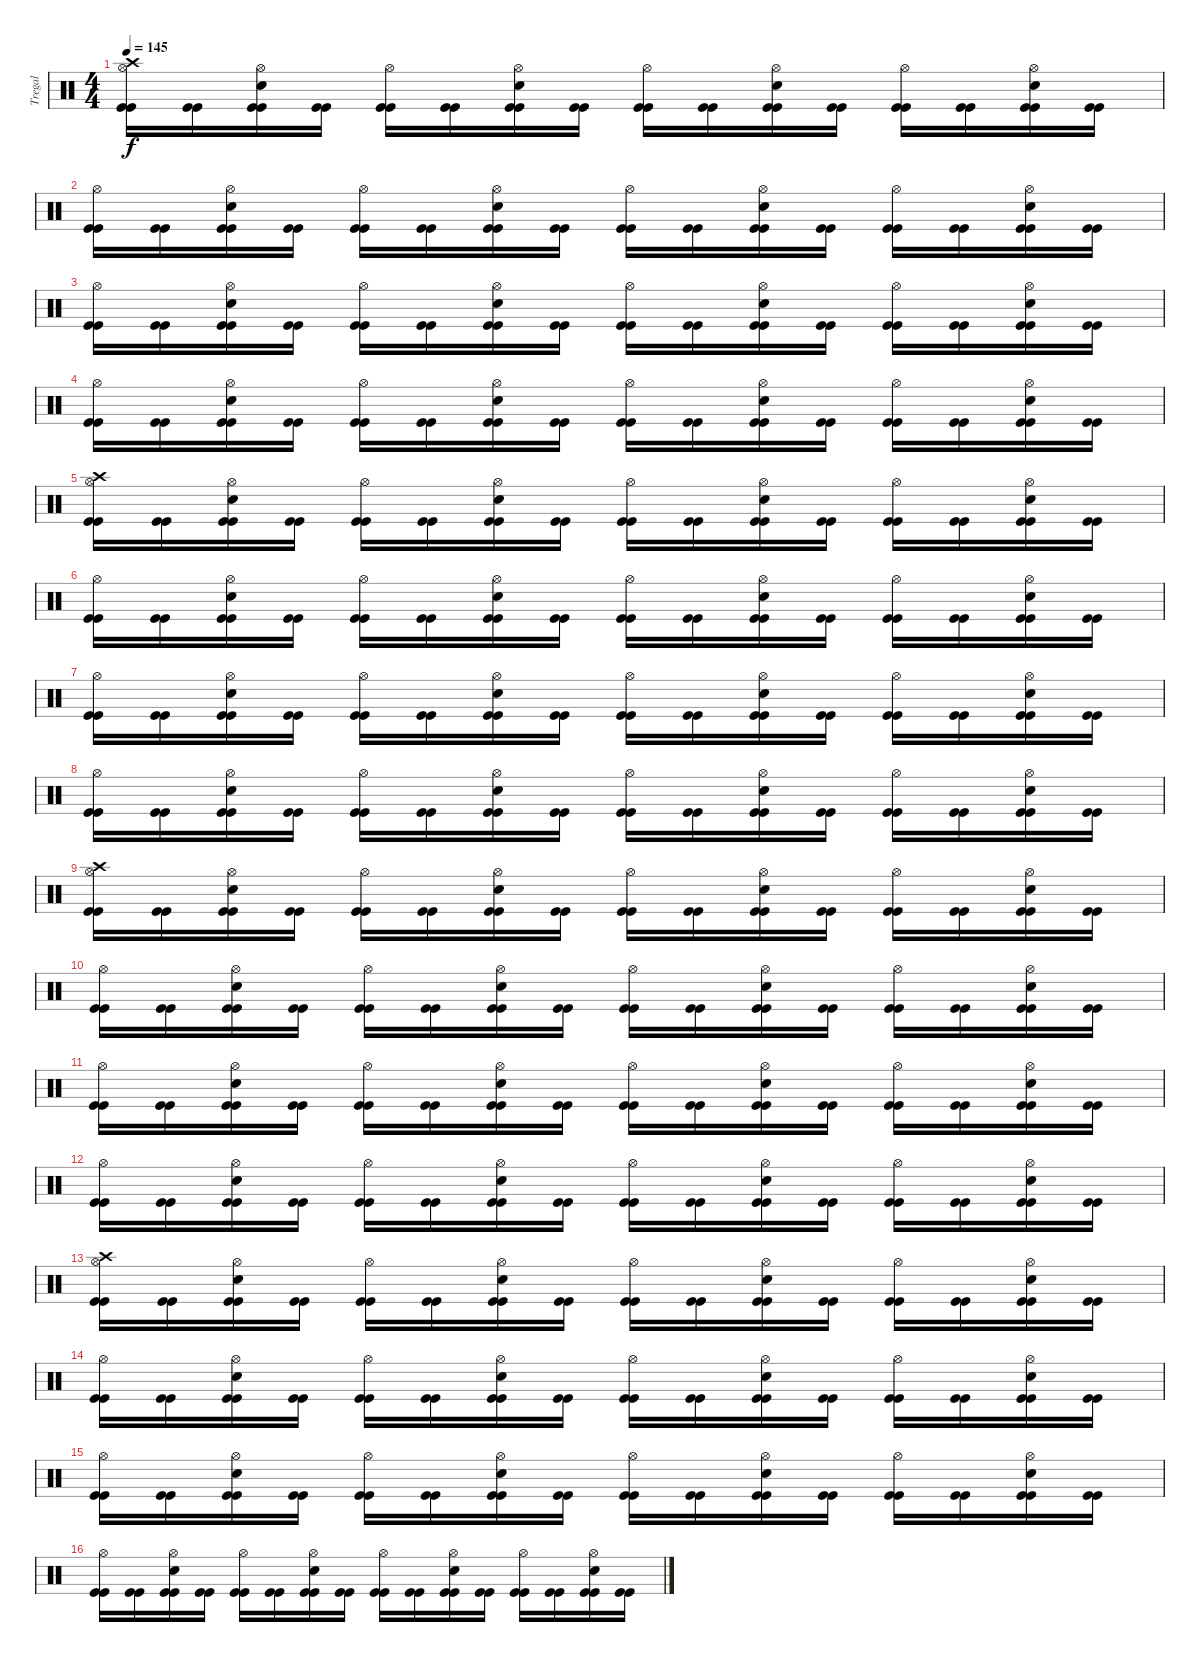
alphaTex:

\track ("Tregal" "Tregal") {instrument percussion}
\staff {score}
\articulation defaults
\ts (4 4)
\tempo 145
\clef neutral
\ks c
("Kick (hit)" "Kick (hit)" "Hi-Hat (open)" "Crash high (hit)").16{dy f} ("Kick (hit)" "Kick (hit)").16 ("Kick (hit)" "Kick (hit)" "Hi-Hat (open)" "Snare (hit) 2").16 ("Kick (hit)" "Kick (hit)").16 ("Kick (hit)" "Kick (hit)" "Hi-Hat (open)").16 ("Kick (hit)" "Kick (hit)").16 ("Kick (hit)" "Kick (hit)" "Hi-Hat (open)" "Snare (hit) 2").16 ("Kick (hit)" "Kick (hit)").16 ("Kick (hit)" "Kick (hit)" "Hi-Hat (open)").16 ("Kick (hit)" "Kick (hit)").16 ("Kick (hit)" "Kick (hit)" "Hi-Hat (open)" "Snare (hit) 2").16 ("Kick (hit)" "Kick (hit)").16 ("Kick (hit)" "Kick (hit)" "Hi-Hat (open)").16 ("Kick (hit)" "Kick (hit)").16 ("Kick (hit)" "Kick (hit)" "Hi-Hat (open)" "Snare (hit) 2").16 ("Kick (hit)" "Kick (hit)").16 |
("Kick (hit)" "Kick (hit)" "Hi-Hat (open)").16 ("Kick (hit)" "Kick (hit)").16 ("Kick (hit)" "Kick (hit)" "Hi-Hat (open)" "Snare (hit) 2").16 ("Kick (hit)" "Kick (hit)").16 ("Kick (hit)" "Kick (hit)" "Hi-Hat (open)").16 ("Kick (hit)" "Kick (hit)").16 ("Kick (hit)" "Kick (hit)" "Hi-Hat (open)" "Snare (hit) 2").16 ("Kick (hit)" "Kick (hit)").16 ("Kick (hit)" "Kick (hit)" "Hi-Hat (open)").16 ("Kick (hit)" "Kick (hit)").16 ("Kick (hit)" "Kick (hit)" "Hi-Hat (open)" "Snare (hit) 2").16 ("Kick (hit)" "Kick (hit)").16 ("Kick (hit)" "Kick (hit)" "Hi-Hat (open)").16 ("Kick (hit)" "Kick (hit)").16 ("Kick (hit)" "Kick (hit)" "Hi-Hat (open)" "Snare (hit) 2").16 ("Kick (hit)" "Kick (hit)").16 |
("Kick (hit)" "Kick (hit)" "Hi-Hat (open)").16 ("Kick (hit)" "Kick (hit)").16 ("Kick (hit)" "Kick (hit)" "Hi-Hat (open)" "Snare (hit) 2").16 ("Kick (hit)" "Kick (hit)").16 ("Kick (hit)" "Kick (hit)" "Hi-Hat (open)").16 ("Kick (hit)" "Kick (hit)").16 ("Kick (hit)" "Kick (hit)" "Hi-Hat (open)" "Snare (hit) 2").16 ("Kick (hit)" "Kick (hit)").16 ("Kick (hit)" "Kick (hit)" "Hi-Hat (open)").16 ("Kick (hit)" "Kick (hit)").16 ("Kick (hit)" "Kick (hit)" "Hi-Hat (open)" "Snare (hit) 2").16 ("Kick (hit)" "Kick (hit)").16 ("Kick (hit)" "Kick (hit)" "Hi-Hat (open)").16 ("Kick (hit)" "Kick (hit)").16 ("Kick (hit)" "Kick (hit)" "Hi-Hat (open)" "Snare (hit) 2").16 ("Kick (hit)" "Kick (hit)").16 |
("Kick (hit)" "Kick (hit)" "Hi-Hat (open)").16 ("Kick (hit)" "Kick (hit)").16 ("Kick (hit)" "Kick (hit)" "Hi-Hat (open)" "Snare (hit) 2").16 ("Kick (hit)" "Kick (hit)").16 ("Kick (hit)" "Kick (hit)" "Hi-Hat (open)").16 ("Kick (hit)" "Kick (hit)").16 ("Kick (hit)" "Kick (hit)" "Hi-Hat (open)" "Snare (hit) 2").16 ("Kick (hit)" "Kick (hit)").16 ("Kick (hit)" "Kick (hit)" "Hi-Hat (open)").16 ("Kick (hit)" "Kick (hit)").16 ("Kick (hit)" "Kick (hit)" "Hi-Hat (open)" "Snare (hit) 2").16 ("Kick (hit)" "Kick (hit)").16 ("Kick (hit)" "Kick (hit)" "Hi-Hat (open)").16 ("Kick (hit)" "Kick (hit)").16 ("Kick (hit)" "Kick (hit)" "Hi-Hat (open)" "Snare (hit) 2").16 ("Kick (hit)" "Kick (hit)").16 |
("Kick (hit)" "Kick (hit)" "Hi-Hat (open)" "Crash high (hit)").16 ("Kick (hit)" "Kick (hit)").16 ("Kick (hit)" "Kick (hit)" "Hi-Hat (open)" "Snare (hit) 2").16 ("Kick (hit)" "Kick (hit)").16 ("Kick (hit)" "Kick (hit)" "Hi-Hat (open)").16 ("Kick (hit)" "Kick (hit)").16 ("Kick (hit)" "Kick (hit)" "Hi-Hat (open)" "Snare (hit) 2").16 ("Kick (hit)" "Kick (hit)").16 ("Kick (hit)" "Kick (hit)" "Hi-Hat (open)").16 ("Kick (hit)" "Kick (hit)").16 ("Kick (hit)" "Kick (hit)" "Hi-Hat (open)" "Snare (hit) 2").16 ("Kick (hit)" "Kick (hit)").16 ("Kick (hit)" "Kick (hit)" "Hi-Hat (open)").16 ("Kick (hit)" "Kick (hit)").16 ("Kick (hit)" "Kick (hit)" "Hi-Hat (open)" "Snare (hit) 2").16 ("Kick (hit)" "Kick (hit)").16 |
("Kick (hit)" "Kick (hit)" "Hi-Hat (open)").16 ("Kick (hit)" "Kick (hit)").16 ("Kick (hit)" "Kick (hit)" "Hi-Hat (open)" "Snare (hit) 2").16 ("Kick (hit)" "Kick (hit)").16 ("Kick (hit)" "Kick (hit)" "Hi-Hat (open)").16 ("Kick (hit)" "Kick (hit)").16 ("Kick (hit)" "Kick (hit)" "Hi-Hat (open)" "Snare (hit) 2").16 ("Kick (hit)" "Kick (hit)").16 ("Kick (hit)" "Kick (hit)" "Hi-Hat (open)").16 ("Kick (hit)" "Kick (hit)").16 ("Kick (hit)" "Kick (hit)" "Hi-Hat (open)" "Snare (hit) 2").16 ("Kick (hit)" "Kick (hit)").16 ("Kick (hit)" "Kick (hit)" "Hi-Hat (open)").16 ("Kick (hit)" "Kick (hit)").16 ("Kick (hit)" "Kick (hit)" "Hi-Hat (open)" "Snare (hit) 2").16 ("Kick (hit)" "Kick (hit)").16 |
("Kick (hit)" "Kick (hit)" "Hi-Hat (open)").16 ("Kick (hit)" "Kick (hit)").16 ("Kick (hit)" "Kick (hit)" "Hi-Hat (open)" "Snare (hit) 2").16 ("Kick (hit)" "Kick (hit)").16 ("Kick (hit)" "Kick (hit)" "Hi-Hat (open)").16 ("Kick (hit)" "Kick (hit)").16 ("Kick (hit)" "Kick (hit)" "Hi-Hat (open)" "Snare (hit) 2").16 ("Kick (hit)" "Kick (hit)").16 ("Kick (hit)" "Kick (hit)" "Hi-Hat (open)").16 ("Kick (hit)" "Kick (hit)").16 ("Kick (hit)" "Kick (hit)" "Hi-Hat (open)" "Snare (hit) 2").16 ("Kick (hit)" "Kick (hit)").16 ("Kick (hit)" "Kick (hit)" "Hi-Hat (open)").16 ("Kick (hit)" "Kick (hit)").16 ("Kick (hit)" "Kick (hit)" "Hi-Hat (open)" "Snare (hit) 2").16 ("Kick (hit)" "Kick (hit)").16 |
("Kick (hit)" "Kick (hit)" "Hi-Hat (open)").16 ("Kick (hit)" "Kick (hit)").16 ("Kick (hit)" "Kick (hit)" "Hi-Hat (open)" "Snare (hit) 2").16 ("Kick (hit)" "Kick (hit)").16 ("Kick (hit)" "Kick (hit)" "Hi-Hat (open)").16 ("Kick (hit)" "Kick (hit)").16 ("Kick (hit)" "Kick (hit)" "Hi-Hat (open)" "Snare (hit) 2").16 ("Kick (hit)" "Kick (hit)").16 ("Kick (hit)" "Kick (hit)" "Hi-Hat (open)").16 ("Kick (hit)" "Kick (hit)").16 ("Kick (hit)" "Kick (hit)" "Hi-Hat (open)" "Snare (hit) 2").16 ("Kick (hit)" "Kick (hit)").16 ("Kick (hit)" "Kick (hit)" "Hi-Hat (open)").16 ("Kick (hit)" "Kick (hit)").16 ("Kick (hit)" "Kick (hit)" "Hi-Hat (open)" "Snare (hit) 2").16 ("Kick (hit)" "Kick (hit)").16 |
("Kick (hit)" "Kick (hit)" "Hi-Hat (open)" "Crash high (hit)").16 ("Kick (hit)" "Kick (hit)").16 ("Kick (hit)" "Kick (hit)" "Hi-Hat (open)" "Snare (hit) 2").16 ("Kick (hit)" "Kick (hit)").16 ("Kick (hit)" "Kick (hit)" "Hi-Hat (open)").16 ("Kick (hit)" "Kick (hit)").16 ("Kick (hit)" "Kick (hit)" "Hi-Hat (open)" "Snare (hit) 2").16 ("Kick (hit)" "Kick (hit)").16 ("Kick (hit)" "Kick (hit)" "Hi-Hat (open)").16 ("Kick (hit)" "Kick (hit)").16 ("Kick (hit)" "Kick (hit)" "Hi-Hat (open)" "Snare (hit) 2").16 ("Kick (hit)" "Kick (hit)").16 ("Kick (hit)" "Kick (hit)" "Hi-Hat (open)").16 ("Kick (hit)" "Kick (hit)").16 ("Kick (hit)" "Kick (hit)" "Hi-Hat (open)" "Snare (hit) 2").16 ("Kick (hit)" "Kick (hit)").16 |
("Kick (hit)" "Kick (hit)" "Hi-Hat (open)").16 ("Kick (hit)" "Kick (hit)").16 ("Kick (hit)" "Kick (hit)" "Hi-Hat (open)" "Snare (hit) 2").16 ("Kick (hit)" "Kick (hit)").16 ("Kick (hit)" "Kick (hit)" "Hi-Hat (open)").16 ("Kick (hit)" "Kick (hit)").16 ("Kick (hit)" "Kick (hit)" "Hi-Hat (open)" "Snare (hit) 2").16 ("Kick (hit)" "Kick (hit)").16 ("Kick (hit)" "Kick (hit)" "Hi-Hat (open)").16 ("Kick (hit)" "Kick (hit)").16 ("Kick (hit)" "Kick (hit)" "Hi-Hat (open)" "Snare (hit) 2").16 ("Kick (hit)" "Kick (hit)").16 ("Kick (hit)" "Kick (hit)" "Hi-Hat (open)").16 ("Kick (hit)" "Kick (hit)").16 ("Kick (hit)" "Kick (hit)" "Hi-Hat (open)" "Snare (hit) 2").16 ("Kick (hit)" "Kick (hit)").16 |
("Kick (hit)" "Kick (hit)" "Hi-Hat (open)").16 ("Kick (hit)" "Kick (hit)").16 ("Kick (hit)" "Kick (hit)" "Hi-Hat (open)" "Snare (hit) 2").16 ("Kick (hit)" "Kick (hit)").16 ("Kick (hit)" "Kick (hit)" "Hi-Hat (open)").16 ("Kick (hit)" "Kick (hit)").16 ("Kick (hit)" "Kick (hit)" "Hi-Hat (open)" "Snare (hit) 2").16 ("Kick (hit)" "Kick (hit)").16 ("Kick (hit)" "Kick (hit)" "Hi-Hat (open)").16 ("Kick (hit)" "Kick (hit)").16 ("Kick (hit)" "Kick (hit)" "Hi-Hat (open)" "Snare (hit) 2").16 ("Kick (hit)" "Kick (hit)").16 ("Kick (hit)" "Kick (hit)" "Hi-Hat (open)").16 ("Kick (hit)" "Kick (hit)").16 ("Kick (hit)" "Kick (hit)" "Hi-Hat (open)" "Snare (hit) 2").16 ("Kick (hit)" "Kick (hit)").16 |
("Kick (hit)" "Kick (hit)" "Hi-Hat (open)").16 ("Kick (hit)" "Kick (hit)").16 ("Kick (hit)" "Kick (hit)" "Hi-Hat (open)" "Snare (hit) 2").16 ("Kick (hit)" "Kick (hit)").16 ("Kick (hit)" "Kick (hit)" "Hi-Hat (open)").16 ("Kick (hit)" "Kick (hit)").16 ("Kick (hit)" "Kick (hit)" "Hi-Hat (open)" "Snare (hit) 2").16 ("Kick (hit)" "Kick (hit)").16 ("Kick (hit)" "Kick (hit)" "Hi-Hat (open)").16 ("Kick (hit)" "Kick (hit)").16 ("Kick (hit)" "Kick (hit)" "Hi-Hat (open)" "Snare (hit) 2").16 ("Kick (hit)" "Kick (hit)").16 ("Kick (hit)" "Kick (hit)" "Hi-Hat (open)").16 ("Kick (hit)" "Kick (hit)").16 ("Kick (hit)" "Kick (hit)" "Hi-Hat (open)" "Snare (hit) 2").16 ("Kick (hit)" "Kick (hit)").16 |
("Kick (hit)" "Kick (hit)" "Hi-Hat (open)" "Crash high (hit)").16 ("Kick (hit)" "Kick (hit)").16 ("Kick (hit)" "Kick (hit)" "Hi-Hat (open)" "Snare (hit) 2").16 ("Kick (hit)" "Kick (hit)").16 ("Kick (hit)" "Kick (hit)" "Hi-Hat (open)").16 ("Kick (hit)" "Kick (hit)").16 ("Kick (hit)" "Kick (hit)" "Hi-Hat (open)" "Snare (hit) 2").16 ("Kick (hit)" "Kick (hit)").16 ("Kick (hit)" "Kick (hit)" "Hi-Hat (open)").16 ("Kick (hit)" "Kick (hit)").16 ("Kick (hit)" "Kick (hit)" "Hi-Hat (open)" "Snare (hit) 2").16 ("Kick (hit)" "Kick (hit)").16 ("Kick (hit)" "Kick (hit)" "Hi-Hat (open)").16 ("Kick (hit)" "Kick (hit)").16 ("Kick (hit)" "Kick (hit)" "Hi-Hat (open)" "Snare (hit) 2").16 ("Kick (hit)" "Kick (hit)").16 |
("Kick (hit)" "Kick (hit)" "Hi-Hat (open)").16 ("Kick (hit)" "Kick (hit)").16 ("Kick (hit)" "Kick (hit)" "Hi-Hat (open)" "Snare (hit) 2").16 ("Kick (hit)" "Kick (hit)").16 ("Kick (hit)" "Kick (hit)" "Hi-Hat (open)").16 ("Kick (hit)" "Kick (hit)").16 ("Kick (hit)" "Kick (hit)" "Hi-Hat (open)" "Snare (hit) 2").16 ("Kick (hit)" "Kick (hit)").16 ("Kick (hit)" "Kick (hit)" "Hi-Hat (open)").16 ("Kick (hit)" "Kick (hit)").16 ("Kick (hit)" "Kick (hit)" "Hi-Hat (open)" "Snare (hit) 2").16 ("Kick (hit)" "Kick (hit)").16 ("Kick (hit)" "Kick (hit)" "Hi-Hat (open)").16 ("Kick (hit)" "Kick (hit)").16 ("Kick (hit)" "Kick (hit)" "Hi-Hat (open)" "Snare (hit) 2").16 ("Kick (hit)" "Kick (hit)").16 |
("Kick (hit)" "Kick (hit)" "Hi-Hat (open)").16 ("Kick (hit)" "Kick (hit)").16 ("Kick (hit)" "Kick (hit)" "Hi-Hat (open)" "Snare (hit) 2").16 ("Kick (hit)" "Kick (hit)").16 ("Kick (hit)" "Kick (hit)" "Hi-Hat (open)").16 ("Kick (hit)" "Kick (hit)").16 ("Kick (hit)" "Kick (hit)" "Hi-Hat (open)" "Snare (hit) 2").16 ("Kick (hit)" "Kick (hit)").16 ("Kick (hit)" "Kick (hit)" "Hi-Hat (open)").16 ("Kick (hit)" "Kick (hit)").16 ("Kick (hit)" "Kick (hit)" "Hi-Hat (open)" "Snare (hit) 2").16 ("Kick (hit)" "Kick (hit)").16 ("Kick (hit)" "Kick (hit)" "Hi-Hat (open)").16 ("Kick (hit)" "Kick (hit)").16 ("Kick (hit)" "Kick (hit)" "Hi-Hat (open)" "Snare (hit) 2").16 ("Kick (hit)" "Kick (hit)").16 |
("Kick (hit)" "Kick (hit)" "Hi-Hat (open)").16 ("Kick (hit)" "Kick (hit)").16 ("Kick (hit)" "Kick (hit)" "Hi-Hat (open)" "Snare (hit) 2").16 ("Kick (hit)" "Kick (hit)").16 ("Kick (hit)" "Kick (hit)" "Hi-Hat (open)").16 ("Kick (hit)" "Kick (hit)").16 ("Kick (hit)" "Kick (hit)" "Hi-Hat (open)" "Snare (hit) 2").16 ("Kick (hit)" "Kick (hit)").16 ("Kick (hit)" "Kick (hit)" "Hi-Hat (open)").16 ("Kick (hit)" "Kick (hit)").16 ("Kick (hit)" "Kick (hit)" "Hi-Hat (open)" "Snare (hit) 2").16 ("Kick (hit)" "Kick (hit)").16 ("Kick (hit)" "Kick (hit)" "Hi-Hat (open)").16 ("Kick (hit)" "Kick (hit)").16 ("Kick (hit)" "Kick (hit)" "Hi-Hat (open)" "Snare (hit) 2").16 ("Kick (hit)" "Kick (hit)").16
